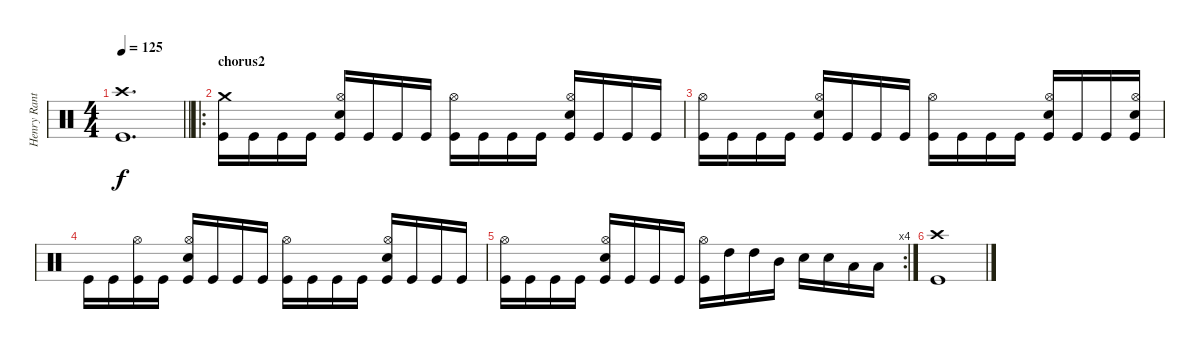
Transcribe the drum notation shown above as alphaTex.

\track ("Henry Ranta" "Henry Rant") {instrument percussion}
\staff {score}
\articulation defaults
\ts (4 4)
\tempo 125
\clef neutral
\barLineRight lightlight
\ks c
("Crash high (hit)" "Kick (hit)").1{d dy f} |
\ro
\section ("" "chorus2")
("Crash medium (hit)" "Kick (hit)").16 "Kick (hit)".16 "Kick (hit)".16 "Kick (hit)".16 ("Hi-Hat (open)" "Electric Snare (hit)" "Kick (hit)").16 "Kick (hit)".16 "Kick (hit)".16 "Kick (hit)".16 ("Hi-Hat (open)" "Kick (hit)").16 "Kick (hit)".16 "Kick (hit)".16 "Kick (hit)".16 ("Hi-Hat (open)" "Electric Snare (hit)" "Kick (hit)").16 "Kick (hit)".16 "Kick (hit)".16 "Kick (hit)".16 |
("Hi-Hat (open)" "Kick (hit)").16 "Kick (hit)".16 "Kick (hit)".16 "Kick (hit)".16 ("Hi-Hat (open)" "Electric Snare (hit)" "Kick (hit)").16 "Kick (hit)".16 "Kick (hit)".16 "Kick (hit)".16 ("Hi-Hat (open)" "Kick (hit)").16 "Kick (hit)".16 "Kick (hit)".16 "Kick (hit)".16 ("Hi-Hat (open)" "Electric Snare (hit)" "Kick (hit)").16 "Kick (hit)".16 "Kick (hit)".16 ("Hi-Hat (open)" "Electric Snare (hit)" "Kick (hit)").16 |
"Kick (hit)".16 "Kick (hit)".16 ("Hi-Hat (open)" "Kick (hit)").16 "Kick (hit)".16 ("Hi-Hat (open)" "Electric Snare (hit)" "Kick (hit)").16 "Kick (hit)".16 "Kick (hit)".16 "Kick (hit)".16 ("Hi-Hat (open)" "Kick (hit)").16 "Kick (hit)".16 "Kick (hit)".16 "Kick (hit)".16 ("Hi-Hat (open)" "Electric Snare (hit)" "Kick (hit)").16 "Kick (hit)".16 "Kick (hit)".16 "Kick (hit)".16 |
\rc 4
("Hi-Hat (open)" "Kick (hit)").16 "Kick (hit)".16 "Kick (hit)".16 "Kick (hit)".16 ("Hi-Hat (open)" "Electric Snare (hit)" "Kick (hit)").16 "Kick (hit)".16 "Kick (hit)".16 "Kick (hit)".16 ("Hi-Hat (open)" "Kick (hit)").16 "High Tom (hit)".16 "High Tom (hit)".16 "Mid Tom (hit)".16 "Electric Snare (hit)".16 "Electric Snare (hit)".16 "Low Tom (hit)".16 "Low Tom (hit)".16 |
("Crash high (hit)" "Kick (hit)").1
